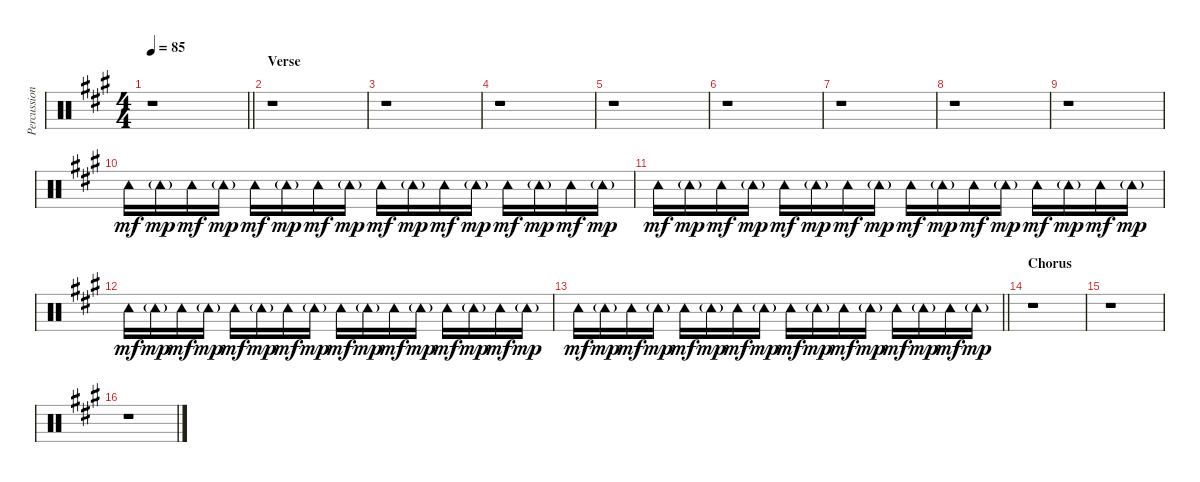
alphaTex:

\track ("Percussion" "Percussion") {instrument percussion}
\staff {score}
\articulation defaults
\ts (4 4)
\tempo 85
\clef neutral
\barLineRight lightlight
\ks a
r.1{dy f} |
\section ("" "Verse")
r.1 |
r.1 |
r.1 |
r.1 |
r.1 |
r.1 |
r.1 |
r.1 |
"Tambourine (hit)".16{dy mf} "Tambourine (hit)"{g}.16{dy mp} "Tambourine (hit)".16{dy mf} "Tambourine (hit)"{g}.16{dy mp} "Tambourine (hit)".16{dy mf} "Tambourine (hit)"{g}.16{dy mp} "Tambourine (hit)".16{dy mf} "Tambourine (hit)"{g}.16{dy mp} "Tambourine (hit)".16{dy mf} "Tambourine (hit)"{g}.16{dy mp} "Tambourine (hit)".16{dy mf} "Tambourine (hit)"{g}.16{dy mp} "Tambourine (hit)".16{dy mf} "Tambourine (hit)"{g}.16{dy mp} "Tambourine (hit)".16{dy mf} "Tambourine (hit)"{g}.16{dy mp} |
"Tambourine (hit)".16{dy mf} "Tambourine (hit)"{g}.16{dy mp} "Tambourine (hit)".16{dy mf} "Tambourine (hit)"{g}.16{dy mp} "Tambourine (hit)".16{dy mf} "Tambourine (hit)"{g}.16{dy mp} "Tambourine (hit)".16{dy mf} "Tambourine (hit)"{g}.16{dy mp} "Tambourine (hit)".16{dy mf} "Tambourine (hit)"{g}.16{dy mp} "Tambourine (hit)".16{dy mf} "Tambourine (hit)"{g}.16{dy mp} "Tambourine (hit)".16{dy mf} "Tambourine (hit)"{g}.16{dy mp} "Tambourine (hit)".16{dy mf} "Tambourine (hit)"{g}.16{dy mp} |
"Tambourine (hit)".16{dy mf} "Tambourine (hit)"{g}.16{dy mp} "Tambourine (hit)".16{dy mf} "Tambourine (hit)"{g}.16{dy mp} "Tambourine (hit)".16{dy mf} "Tambourine (hit)"{g}.16{dy mp} "Tambourine (hit)".16{dy mf} "Tambourine (hit)"{g}.16{dy mp} "Tambourine (hit)".16{dy mf} "Tambourine (hit)"{g}.16{dy mp} "Tambourine (hit)".16{dy mf} "Tambourine (hit)"{g}.16{dy mp} "Tambourine (hit)".16{dy mf} "Tambourine (hit)"{g}.16{dy mp} "Tambourine (hit)".16{dy mf} "Tambourine (hit)"{g}.16{dy mp} |
\barLineRight lightlight "Tambourine (hit)".16{dy mf} "Tambourine (hit)"{g}.16{dy mp} "Tambourine (hit)".16{dy mf} "Tambourine (hit)"{g}.16{dy mp} "Tambourine (hit)".16{dy mf} "Tambourine (hit)"{g}.16{dy mp} "Tambourine (hit)".16{dy mf} "Tambourine (hit)"{g}.16{dy mp} "Tambourine (hit)".16{dy mf} "Tambourine (hit)"{g}.16{dy mp} "Tambourine (hit)".16{dy mf} "Tambourine (hit)"{g}.16{dy mp} "Tambourine (hit)".16{dy mf} "Tambourine (hit)"{g}.16{dy mp} "Tambourine (hit)".16{dy mf} "Tambourine (hit)"{g}.16{dy mp}
|
\section ("" "Chorus")
r.1 |
r.1 |
r.1
